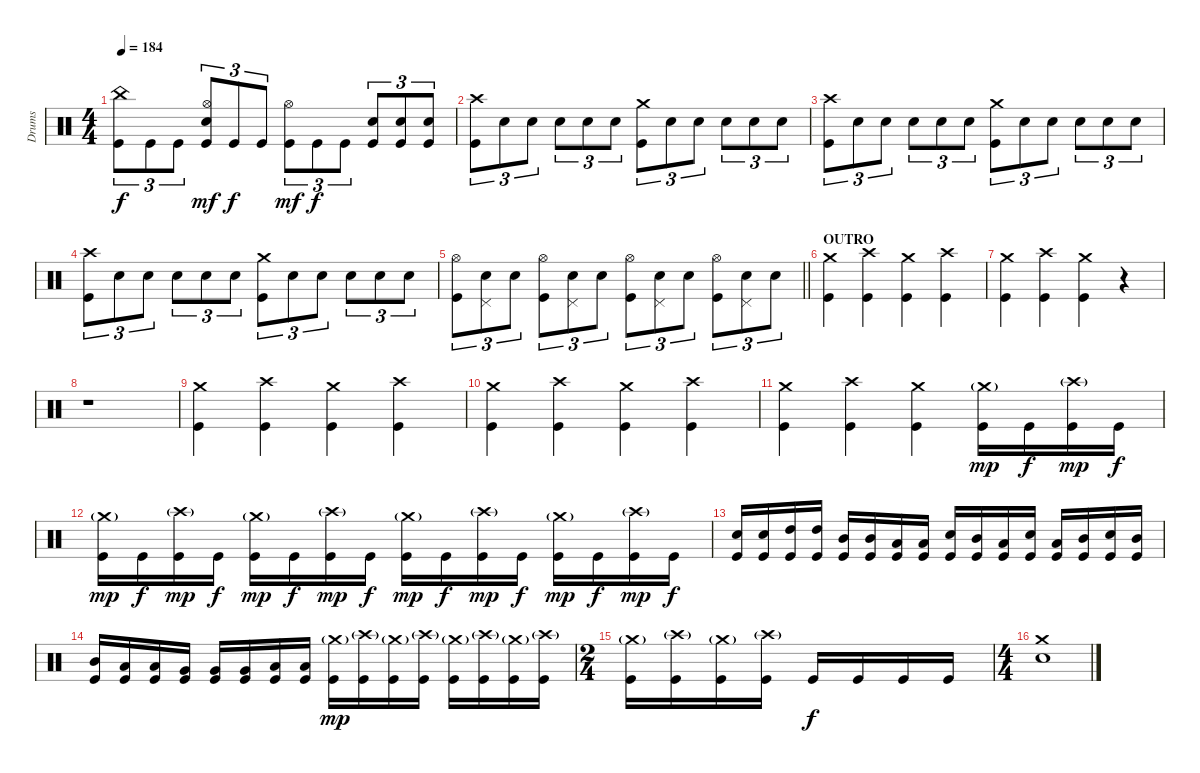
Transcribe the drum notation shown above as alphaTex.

\track ("Drums" "Drums") {instrument percussion}
\staff {score}
\articulation defaults
\ts (4 4)
\tempo 184
\clef neutral
\ks c
("China (hit)" "Kick (hit)").8{tu (3 2) dy f} "Kick (hit)".8{tu (3 2)} "Kick (hit)".8{tu (3 2)} ("Hi-Hat (open)" "Electric Snare (hit)" "Kick (hit)").8{tu (3 2) dy mf} "Kick (hit)".8{tu (3 2) dy f} "Kick (hit)".8{tu (3 2)} ("Hi-Hat (open)" "Kick (hit)").8{tu (3 2) dy mf} "Kick (hit)".8{tu (3 2) dy f} "Kick (hit)".8{tu (3 2)} ("Electric Snare (hit)" "Kick (hit)").8{tu (3 2)} ("Electric Snare (hit)" "Kick (hit)").8{tu (3 2)} ("Electric Snare (hit)" "Kick (hit)").8{tu (3 2)} |
("Crash high (hit)" "Kick (hit)").8{tu (3 2)} "Electric Snare (hit)".8{tu (3 2)} "Electric Snare (hit)".8{tu (3 2)} "Electric Snare (hit)".8{tu (3 2)} "Electric Snare (hit)".8{tu (3 2)} "Electric Snare (hit)".8{tu (3 2)} ("Crash medium (hit)" "Kick (hit)").8{tu (3 2)} "Electric Snare (hit)".8{tu (3 2)} "Electric Snare (hit)".8{tu (3 2)} "Electric Snare (hit)".8{tu (3 2)} "Electric Snare (hit)".8{tu (3 2)} "Electric Snare (hit)".8{tu (3 2)} |
("Crash high (hit)" "Kick (hit)").8{tu (3 2)} "Electric Snare (hit)".8{tu (3 2)} "Electric Snare (hit)".8{tu (3 2)} "Electric Snare (hit)".8{tu (3 2)} "Electric Snare (hit)".8{tu (3 2)} "Electric Snare (hit)".8{tu (3 2)} ("Crash medium (hit)" "Kick (hit)").8{tu (3 2)} "Electric Snare (hit)".8{tu (3 2)} "Electric Snare (hit)".8{tu (3 2)} "Electric Snare (hit)".8{tu (3 2)} "Electric Snare (hit)".8{tu (3 2)} "Electric Snare (hit)".8{tu (3 2)} |
("Crash high (hit)" "Kick (hit)").8{tu (3 2)} "Electric Snare (hit)".8{tu (3 2)} "Electric Snare (hit)".8{tu (3 2)} "Electric Snare (hit)".8{tu (3 2)} "Electric Snare (hit)".8{tu (3 2)} "Electric Snare (hit)".8{tu (3 2)} ("Crash medium (hit)" "Kick (hit)").8{tu (3 2)} "Electric Snare (hit)".8{tu (3 2)} "Electric Snare (hit)".8{tu (3 2)} "Electric Snare (hit)".8{tu (3 2)} "Electric Snare (hit)".8{tu (3 2)} "Electric Snare (hit)".8{tu (3 2)} |
\barLineRight lightlight
("Hi-Hat (open)" "Kick (hit)").8{tu (3 2)} ("Pedal Hi-Hat (hit)" "Electric Snare (hit)").8{tu (3 2)} "Electric Snare (hit)".8{tu (3 2)} ("Hi-Hat (open)" "Kick (hit)").8{tu (3 2)} ("Pedal Hi-Hat (hit)" "Electric Snare (hit)").8{tu (3 2)} "Electric Snare (hit)".8{tu (3 2)} ("Hi-Hat (open)" "Kick (hit)").8{tu (3 2)} ("Pedal Hi-Hat (hit)" "Electric Snare (hit)").8{tu (3 2)} "Electric Snare (hit)".8{tu (3 2)} ("Hi-Hat (open)" "Kick (hit)").8{tu (3 2)} ("Pedal Hi-Hat (hit)" "Electric Snare (hit)").8{tu (3 2)} "Electric Snare (hit)".8{tu (3 2)} |
\section ("" "OUTRO")
("Crash medium (hit)" "Kick (hit)").4 ("Crash high (hit)" "Kick (hit)").4 ("Crash medium (hit)" "Kick (hit)").4 ("Crash high (hit)" "Kick (hit)").4 |
("Crash medium (hit)" "Kick (hit)").4 ("Crash high (hit)" "Kick (hit)").4 ("Crash medium (hit)" "Kick (hit)").4 r.4 |
r.1 |
("Crash medium (hit)" "Kick (hit)").4 ("Crash high (hit)" "Kick (hit)").4 ("Crash medium (hit)" "Kick (hit)").4 ("Crash high (hit)" "Kick (hit)").4 |
("Crash medium (hit)" "Kick (hit)").4 ("Crash high (hit)" "Kick (hit)").4 ("Crash medium (hit)" "Kick (hit)").4 ("Crash high (hit)" "Kick (hit)").4 |
("Crash medium (hit)" "Kick (hit)").4 ("Crash high (hit)" "Kick (hit)").4 ("Crash medium (hit)" "Kick (hit)").4 ("Crash medium (hit)"{g} "Kick (hit)").16{dy mp} "Kick (hit)".16{dy f} ("Crash high (hit)"{g} "Kick (hit)").16{dy mp} "Kick (hit)".16{dy f} |
("Crash medium (hit)"{g} "Kick (hit)").16{dy mp} "Kick (hit)".16{dy f} ("Crash high (hit)"{g} "Kick (hit)").16{dy mp} "Kick (hit)".16{dy f} ("Crash medium (hit)"{g} "Kick (hit)").16{dy mp} "Kick (hit)".16{dy f} ("Crash high (hit)"{g} "Kick (hit)").16{dy mp} "Kick (hit)".16{dy f} ("Crash medium (hit)"{g} "Kick (hit)").16{dy mp} "Kick (hit)".16{dy f} ("Crash high (hit)"{g} "Kick (hit)").16{dy mp} "Kick (hit)".16{dy f} ("Crash medium (hit)"{g} "Kick (hit)").16{dy mp} "Kick (hit)".16{dy f} ("Crash high (hit)"{g} "Kick (hit)").16{dy mp} "Kick (hit)".16{dy f} |
("Electric Snare (hit)" "Kick (hit)").16 ("Electric Snare (hit)" "Kick (hit)").16 ("High Tom (hit)" "Kick (hit)").16 ("High Tom (hit)" "Kick (hit)").16 ("Mid Tom (hit)" "Kick (hit)").16 ("Mid Tom (hit)" "Kick (hit)").16 ("Low Tom (hit)" "Kick (hit)").16 ("Low Tom (hit)" "Kick (hit)").16 ("Electric Snare (hit)" "Kick (hit)").16 ("Mid Tom (hit)" "Kick (hit)").16 ("Low Tom (hit)" "Kick (hit)").16 ("Electric Snare (hit)" "Kick (hit)").16 ("Low Tom (hit)" "Kick (hit)").16 ("Mid Tom (hit)" "Kick (hit)").16 ("Electric Snare (hit)" "Kick (hit)").16 ("Mid Tom (hit)" "Kick (hit)").16 |
("Mid Tom (hit)" "Kick (hit)").16 ("Low Tom (hit)" "Kick (hit)").16 ("Low Tom (hit)" "Kick (hit)").16 ("Very Low Tom (hit)" "Kick (hit)").16 ("Very Low Tom (hit)" "Kick (hit)").16 ("Very Low Tom (hit)" "Kick (hit)").16 ("Low Floor Tom (hit)" "Kick (hit)").16 ("Low Floor Tom (hit)" "Kick (hit)").16 ("Crash medium (hit)"{g} "Kick (hit)").16{dy mp} ("Crash high (hit)"{g} "Kick (hit)").16 ("Crash medium (hit)"{g} "Kick (hit)").16 ("Crash high (hit)"{g} "Kick (hit)").16 ("Crash medium (hit)"{g} "Kick (hit)").16 ("Crash high (hit)"{g} "Kick (hit)").16 ("Crash medium (hit)"{g} "Kick (hit)").16 ("Crash high (hit)"{g} "Kick (hit)").16 |
\ts (2 4)
("Crash medium (hit)"{g} "Kick (hit)").16 ("Crash high (hit)"{g} "Kick (hit)").16 ("Crash medium (hit)"{g} "Kick (hit)").16 ("Crash high (hit)"{g} "Kick (hit)").16 "Kick (hit)".16{dy f} "Kick (hit)".16 "Kick (hit)".16 "Kick (hit)".16 |
\ts (4 4)
("Crash medium (hit)" "Electric Snare (hit)").1
